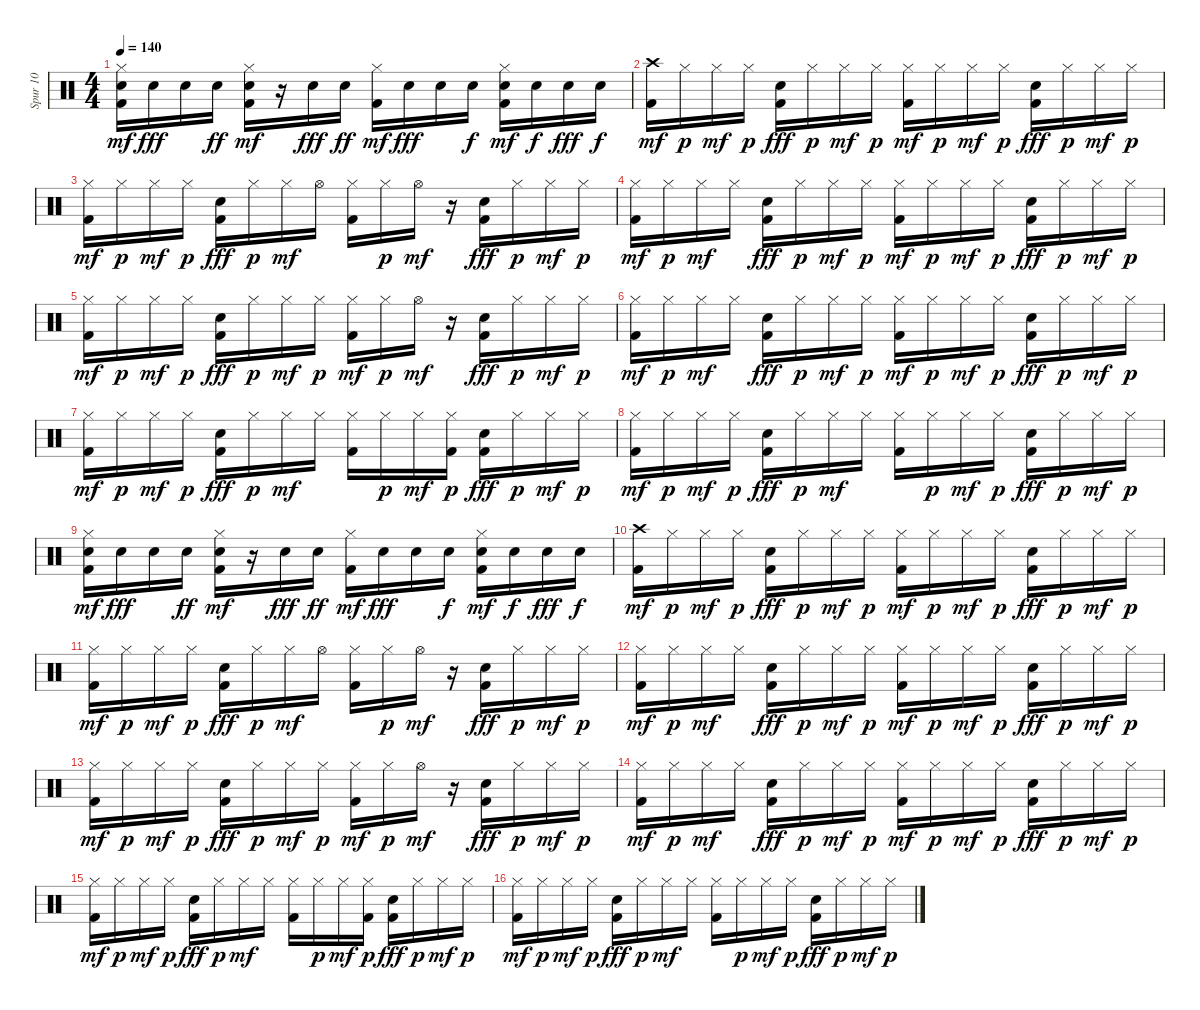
\track ("Spur 10" "Spur 10") {instrument percussion}
\staff {score}
\articulation defaults
\ts (4 4)
\tempo 140
\clef neutral
\ks c
("Kick (hit) 2" "Snare (hit) 2" "Hi-Hat (closed)").16{dy mf} "Snare (hit) 2".16{dy fff} "Snare (hit) 2".16 "Snare (hit) 2".16{dy ff} ("Kick (hit) 2" "Snare (hit) 2" "Hi-Hat (closed)").16{dy mf} r.16 "Snare (hit) 2".16{dy fff} "Snare (hit) 2".16{dy ff} ("Kick (hit) 2" "Hi-Hat (closed)").16{dy mf} "Snare (hit) 2".16{dy fff} "Snare (hit) 2".16 "Snare (hit) 2".16{dy f} ("Kick (hit) 2" "Snare (hit) 2" "Hi-Hat (closed)").16{dy mf} "Snare (hit) 2".16{dy f} "Snare (hit) 2".16{dy fff} "Snare (hit) 2".16{dy f} |
("Kick (hit) 2" "Crash high (hit)").16{dy mf} "Hi-Hat (closed)".16{dy p} "Hi-Hat (closed)".16{dy mf} "Hi-Hat (closed)".16{dy p} ("Kick (hit) 2" "Snare (hit) 2").16{dy fff} "Hi-Hat (closed)".16{dy p} "Hi-Hat (closed)".16{dy mf} "Hi-Hat (closed)".16{dy p} ("Kick (hit) 2" "Hi-Hat (closed)").16{dy mf} "Hi-Hat (closed)".16{dy p} "Hi-Hat (closed)".16{dy mf} "Hi-Hat (closed)".16{dy p} ("Kick (hit) 2" "Snare (hit) 2").16{dy fff} "Hi-Hat (closed)".16{dy p} "Hi-Hat (closed)".16{dy mf} "Hi-Hat (closed)".16{dy p} |
("Kick (hit) 2" "Hi-Hat (closed)").16{dy mf} "Hi-Hat (closed)".16{dy p} "Hi-Hat (closed)".16{dy mf} "Hi-Hat (closed)".16{dy p} ("Kick (hit) 2" "Snare (hit) 2").16{dy fff} "Hi-Hat (closed)".16{dy p} "Hi-Hat (closed)".16{dy mf} "Hi-Hat (open)".16 ("Kick (hit) 2" "Hi-Hat (closed)").16 "Hi-Hat (closed)".16{dy p} "Hi-Hat (open)".16{dy mf} r.16 ("Kick (hit) 2" "Snare (hit) 2").16{dy fff} "Hi-Hat (closed)".16{dy p} "Hi-Hat (closed)".16{dy mf} "Hi-Hat (closed)".16{dy p} |
("Kick (hit) 2" "Hi-Hat (closed)").16{dy mf} "Hi-Hat (closed)".16{dy p} "Hi-Hat (closed)".16{dy mf} "Hi-Hat (closed)".16 ("Kick (hit) 2" "Snare (hit) 2").16{dy fff} "Hi-Hat (closed)".16{dy p} "Hi-Hat (closed)".16{dy mf} "Hi-Hat (closed)".16{dy p} ("Kick (hit) 2" "Hi-Hat (closed)").16{dy mf} "Hi-Hat (closed)".16{dy p} "Hi-Hat (closed)".16{dy mf} "Hi-Hat (closed)".16{dy p} ("Kick (hit) 2" "Snare (hit) 2").16{dy fff} "Hi-Hat (closed)".16{dy p} "Hi-Hat (closed)".16{dy mf} "Hi-Hat (closed)".16{dy p} |
("Kick (hit) 2" "Hi-Hat (closed)").16{dy mf} "Hi-Hat (closed)".16{dy p} "Hi-Hat (closed)".16{dy mf} "Hi-Hat (closed)".16{dy p} ("Kick (hit) 2" "Snare (hit) 2").16{dy fff} "Hi-Hat (closed)".16{dy p} "Hi-Hat (closed)".16{dy mf} "Hi-Hat (closed)".16{dy p} ("Kick (hit) 2" "Hi-Hat (closed)").16{dy mf} "Hi-Hat (closed)".16{dy p} "Hi-Hat (open)".16{dy mf} r.16 ("Kick (hit) 2" "Snare (hit) 2").16{dy fff} "Hi-Hat (closed)".16{dy p} "Hi-Hat (closed)".16{dy mf} "Hi-Hat (closed)".16{dy p} |
("Kick (hit) 2" "Hi-Hat (closed)").16{dy mf} "Hi-Hat (closed)".16{dy p} "Hi-Hat (closed)".16{dy mf} "Hi-Hat (closed)".16 ("Snare (hit) 2" "Kick (hit) 2").16{dy fff} "Hi-Hat (closed)".16{dy p} "Hi-Hat (closed)".16{dy mf} "Hi-Hat (closed)".16{dy p} ("Kick (hit) 2" "Hi-Hat (closed)").16{dy mf} "Hi-Hat (closed)".16{dy p} "Hi-Hat (closed)".16{dy mf} "Hi-Hat (closed)".16{dy p} ("Kick (hit) 2" "Snare (hit) 2").16{dy fff} "Hi-Hat (closed)".16{dy p} "Hi-Hat (closed)".16{dy mf} "Hi-Hat (closed)".16{dy p} |
("Kick (hit) 2" "Hi-Hat (closed)").16{dy mf} "Hi-Hat (closed)".16{dy p} "Hi-Hat (closed)".16{dy mf} "Hi-Hat (closed)".16{dy p} ("Kick (hit) 2" "Snare (hit) 2").16{dy fff} "Hi-Hat (closed)".16{dy p} "Hi-Hat (closed)".16{dy mf} "Hi-Hat (closed)".16 ("Kick (hit) 2" "Hi-Hat (closed)").16 "Hi-Hat (closed)".16{dy p} "Hi-Hat (closed)".16{dy mf} ("Kick (hit) 2" "Hi-Hat (closed)").16{dy p} ("Kick (hit) 2" "Snare (hit) 2").16{dy fff} "Hi-Hat (closed)".16{dy p} "Hi-Hat (closed)".16{dy mf} "Hi-Hat (closed)".16{dy p} |
("Kick (hit) 2" "Hi-Hat (closed)").16{dy mf} "Hi-Hat (closed)".16{dy p} "Hi-Hat (closed)".16{dy mf} "Hi-Hat (closed)".16{dy p} ("Kick (hit) 2" "Snare (hit) 2").16{dy fff} "Hi-Hat (closed)".16{dy p} "Hi-Hat (closed)".16{dy mf} "Hi-Hat (closed)".16 ("Kick (hit) 2" "Hi-Hat (closed)").16 "Hi-Hat (closed)".16{dy p} "Hi-Hat (closed)".16{dy mf} "Hi-Hat (closed)".16{dy p} ("Kick (hit) 2" "Snare (hit) 2").16{dy fff} "Hi-Hat (closed)".16{dy p} "Hi-Hat (closed)".16{dy mf} "Hi-Hat (closed)".16{dy p} |
("Kick (hit) 2" "Snare (hit) 2" "Hi-Hat (closed)").16{dy mf} "Snare (hit) 2".16{dy fff} "Snare (hit) 2".16 "Snare (hit) 2".16{dy ff} ("Kick (hit) 2" "Snare (hit) 2" "Hi-Hat (closed)").16{dy mf} r.16 "Snare (hit) 2".16{dy fff} "Snare (hit) 2".16{dy ff} ("Kick (hit) 2" "Hi-Hat (closed)").16{dy mf} "Snare (hit) 2".16{dy fff} "Snare (hit) 2".16 "Snare (hit) 2".16{dy f} ("Kick (hit) 2" "Snare (hit) 2" "Hi-Hat (closed)").16{dy mf} "Snare (hit) 2".16{dy f} "Snare (hit) 2".16{dy fff} "Snare (hit) 2".16{dy f} |
("Kick (hit) 2" "Crash high (hit)").16{dy mf} "Hi-Hat (closed)".16{dy p} "Hi-Hat (closed)".16{dy mf} "Hi-Hat (closed)".16{dy p} ("Kick (hit) 2" "Snare (hit) 2").16{dy fff} "Hi-Hat (closed)".16{dy p} "Hi-Hat (closed)".16{dy mf} "Hi-Hat (closed)".16{dy p} ("Kick (hit) 2" "Hi-Hat (closed)").16{dy mf} "Hi-Hat (closed)".16{dy p} "Hi-Hat (closed)".16{dy mf} "Hi-Hat (closed)".16{dy p} ("Kick (hit) 2" "Snare (hit) 2").16{dy fff} "Hi-Hat (closed)".16{dy p} "Hi-Hat (closed)".16{dy mf} "Hi-Hat (closed)".16{dy p} |
("Kick (hit) 2" "Hi-Hat (closed)").16{dy mf} "Hi-Hat (closed)".16{dy p} "Hi-Hat (closed)".16{dy mf} "Hi-Hat (closed)".16{dy p} ("Kick (hit) 2" "Snare (hit) 2").16{dy fff} "Hi-Hat (closed)".16{dy p} "Hi-Hat (closed)".16{dy mf} "Hi-Hat (open)".16 ("Kick (hit) 2" "Hi-Hat (closed)").16 "Hi-Hat (closed)".16{dy p} "Hi-Hat (open)".16{dy mf} r.16 ("Kick (hit) 2" "Snare (hit) 2").16{dy fff} "Hi-Hat (closed)".16{dy p} "Hi-Hat (closed)".16{dy mf} "Hi-Hat (closed)".16{dy p} |
("Kick (hit) 2" "Hi-Hat (closed)").16{dy mf} "Hi-Hat (closed)".16{dy p} "Hi-Hat (closed)".16{dy mf} "Hi-Hat (closed)".16 ("Kick (hit) 2" "Snare (hit) 2").16{dy fff} "Hi-Hat (closed)".16{dy p} "Hi-Hat (closed)".16{dy mf} "Hi-Hat (closed)".16{dy p} ("Kick (hit) 2" "Hi-Hat (closed)").16{dy mf} "Hi-Hat (closed)".16{dy p} "Hi-Hat (closed)".16{dy mf} "Hi-Hat (closed)".16{dy p} ("Kick (hit) 2" "Snare (hit) 2").16{dy fff} "Hi-Hat (closed)".16{dy p} "Hi-Hat (closed)".16{dy mf} "Hi-Hat (closed)".16{dy p} |
("Kick (hit) 2" "Hi-Hat (closed)").16{dy mf} "Hi-Hat (closed)".16{dy p} "Hi-Hat (closed)".16{dy mf} "Hi-Hat (closed)".16{dy p} ("Kick (hit) 2" "Snare (hit) 2").16{dy fff} "Hi-Hat (closed)".16{dy p} "Hi-Hat (closed)".16{dy mf} "Hi-Hat (closed)".16{dy p} ("Kick (hit) 2" "Hi-Hat (closed)").16{dy mf} "Hi-Hat (closed)".16{dy p} "Hi-Hat (open)".16{dy mf} r.16 ("Kick (hit) 2" "Snare (hit) 2").16{dy fff} "Hi-Hat (closed)".16{dy p} "Hi-Hat (closed)".16{dy mf} "Hi-Hat (closed)".16{dy p} |
("Kick (hit) 2" "Hi-Hat (closed)").16{dy mf} "Hi-Hat (closed)".16{dy p} "Hi-Hat (closed)".16{dy mf} "Hi-Hat (closed)".16 ("Kick (hit) 2" "Snare (hit) 2").16{dy fff} "Hi-Hat (closed)".16{dy p} "Hi-Hat (closed)".16{dy mf} "Hi-Hat (closed)".16{dy p} ("Kick (hit) 2" "Hi-Hat (closed)").16{dy mf} "Hi-Hat (closed)".16{dy p} "Hi-Hat (closed)".16{dy mf} "Hi-Hat (closed)".16{dy p} ("Kick (hit) 2" "Snare (hit) 2").16{dy fff} "Hi-Hat (closed)".16{dy p} "Hi-Hat (closed)".16{dy mf} "Hi-Hat (closed)".16{dy p} |
("Kick (hit) 2" "Hi-Hat (closed)").16{dy mf} "Hi-Hat (closed)".16{dy p} "Hi-Hat (closed)".16{dy mf} "Hi-Hat (closed)".16{dy p} ("Kick (hit) 2" "Snare (hit) 2").16{dy fff} "Hi-Hat (closed)".16{dy p} "Hi-Hat (closed)".16{dy mf} "Hi-Hat (closed)".16 ("Kick (hit) 2" "Hi-Hat (closed)").16 "Hi-Hat (closed)".16{dy p} "Hi-Hat (closed)".16{dy mf} ("Kick (hit) 2" "Hi-Hat (closed)").16{dy p} ("Kick (hit) 2" "Snare (hit) 2").16{dy fff} "Hi-Hat (closed)".16{dy p} "Hi-Hat (closed)".16{dy mf} "Hi-Hat (closed)".16{dy p} |
("Kick (hit) 2" "Hi-Hat (closed)").16{dy mf} "Hi-Hat (closed)".16{dy p} "Hi-Hat (closed)".16{dy mf} "Hi-Hat (closed)".16{dy p} ("Kick (hit) 2" "Snare (hit) 2").16{dy fff} "Hi-Hat (closed)".16{dy p} "Hi-Hat (closed)".16{dy mf} "Hi-Hat (closed)".16 ("Kick (hit) 2" "Hi-Hat (closed)").16 "Hi-Hat (closed)".16{dy p} "Hi-Hat (closed)".16{dy mf} "Hi-Hat (closed)".16{dy p} ("Kick (hit) 2" "Snare (hit) 2").16{dy fff} "Hi-Hat (closed)".16{dy p} "Hi-Hat (closed)".16{dy mf} "Hi-Hat (closed)".16{dy p}
